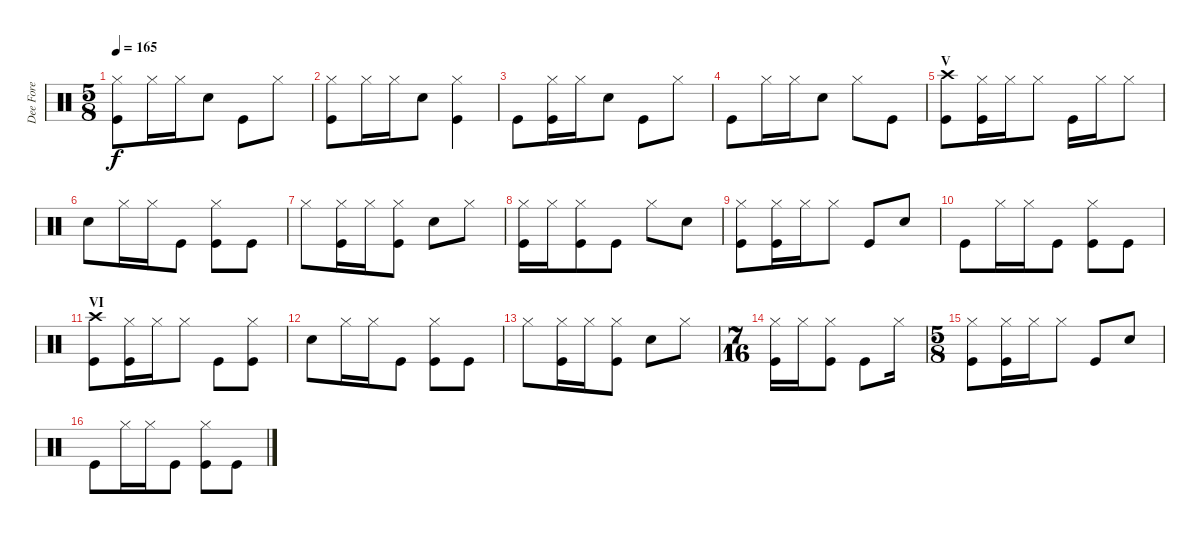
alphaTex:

\track ("Dee Fore" "Dee Fore") {instrument percussion}
\staff {score}
\articulation defaults
\ts (5 8)
\tempo 165
\clef neutral
\ks c
("Hi-Hat (closed)" "Kick (hit)").8{dy f} "Hi-Hat (closed)".16 "Hi-Hat (closed)".16 "Electric Snare (hit)".8 "Kick (hit)".8 "Hi-Hat (closed)".8 |
("Hi-Hat (closed)" "Kick (hit)").8 "Hi-Hat (closed)".16 "Hi-Hat (closed)".16 "Electric Snare (hit)".8 ("Hi-Hat (closed)" "Kick (hit)").4 |
"Kick (hit)".8 ("Hi-Hat (closed)" "Kick (hit)").16 "Hi-Hat (closed)".16 "Electric Snare (hit)".8 "Kick (hit)".8 "Hi-Hat (closed)".8 |
"Kick (hit)".8 "Hi-Hat (closed)".16 "Hi-Hat (closed)".16 "Electric Snare (hit)".8 "Hi-Hat (closed)".8 "Kick (hit)".8 |
\section ("" "V")
("Crash high (hit)" "Kick (hit)").8 ("Hi-Hat (closed)" "Kick (hit)").16 "Hi-Hat (closed)".16 "Hi-Hat (closed)".8 "Kick (hit)".16 "Hi-Hat (closed)".16 "Hi-Hat (closed)".8 |
"Electric Snare (hit)".8 "Hi-Hat (closed)".16 "Hi-Hat (closed)".16 "Kick (hit)".8 ("Hi-Hat (closed)" "Kick (hit)").8 "Kick (hit)".8 |
"Hi-Hat (closed)".8 ("Hi-Hat (closed)" "Kick (hit)").16 "Hi-Hat (closed)".16 ("Hi-Hat (closed)" "Kick (hit)").8 "Electric Snare (hit)".8 "Hi-Hat (closed)".8 |
("Hi-Hat (closed)" "Kick (hit)").16 "Hi-Hat (closed)".16 ("Hi-Hat (closed)" "Kick (hit)").8 "Kick (hit)".8 "Hi-Hat (closed)".8 "Electric Snare (hit)".8 |
("Hi-Hat (closed)" "Kick (hit)").8 ("Hi-Hat (closed)" "Kick (hit)").16 "Hi-Hat (closed)".16 "Hi-Hat (closed)".8 "Kick (hit)".8 "Electric Snare (hit)".8 |
"Kick (hit)".8 "Hi-Hat (closed)".16 "Hi-Hat (closed)".16 "Kick (hit)".8 ("Hi-Hat (closed)" "Kick (hit)").8 "Kick (hit)".8 |
\section ("" "VI")
("Crash high (hit)" "Kick (hit)").8 ("Hi-Hat (closed)" "Kick (hit)").16 "Hi-Hat (closed)".16 "Hi-Hat (closed)".8 "Kick (hit)".8 ("Hi-Hat (closed)" "Kick (hit)").8 |
"Electric Snare (hit)".8 "Hi-Hat (closed)".16 "Hi-Hat (closed)".16 "Kick (hit)".8 ("Hi-Hat (closed)" "Kick (hit)").8 "Kick (hit)".8 |
"Hi-Hat (closed)".8 ("Hi-Hat (closed)" "Kick (hit)").16 "Hi-Hat (closed)".16 ("Hi-Hat (closed)" "Kick (hit)").8 "Electric Snare (hit)".8 "Hi-Hat (closed)".8 |
\ts (7 16)
("Hi-Hat (closed)" "Kick (hit)").16 "Hi-Hat (closed)".16 ("Hi-Hat (closed)" "Kick (hit)").8 "Kick (hit)".8 "Hi-Hat (closed)".16 |
\ts (5 8)
("Hi-Hat (closed)" "Kick (hit)").8 ("Hi-Hat (closed)" "Kick (hit)").16 "Hi-Hat (closed)".16 "Hi-Hat (closed)".8 "Kick (hit)".8 "Electric Snare (hit)".8 |
"Kick (hit)".8 "Hi-Hat (closed)".16 "Hi-Hat (closed)".16 "Kick (hit)".8 ("Hi-Hat (closed)" "Kick (hit)").8 "Kick (hit)".8
